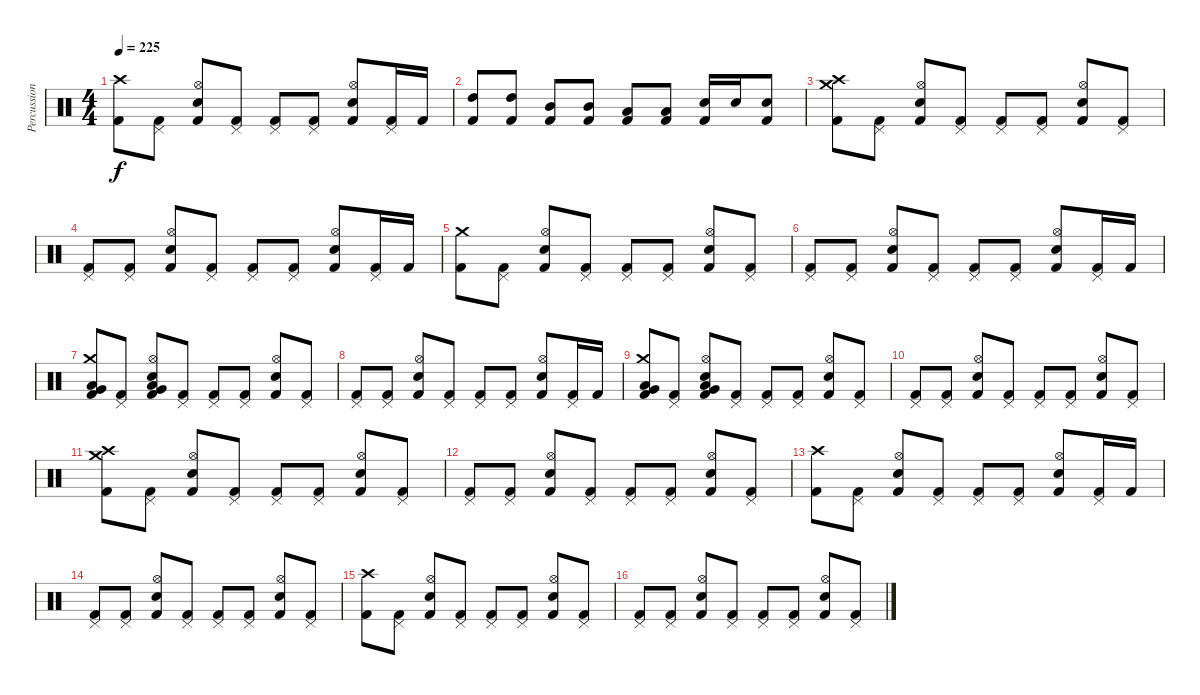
\track ("Percussion" "Percussion") {instrument percussion}
\staff {score}
\articulation defaults
\ts (4 4)
\tempo 225
\clef neutral
\ks c
("Crash high (hit)" "Kick (hit) 2").8{dy f} ("Pedal Hi-Hat (hit)" "Kick (hit) 2").8 ("Hi-Hat (open)" "Electric Snare (hit)" "Kick (hit) 2").8 ("Pedal Hi-Hat (hit)" "Kick (hit) 2").8 ("Pedal Hi-Hat (hit)" "Kick (hit) 2").8 ("Pedal Hi-Hat (hit)" "Kick (hit) 2").8 ("Hi-Hat (open)" "Electric Snare (hit)" "Kick (hit) 2").8 ("Pedal Hi-Hat (hit)" "Kick (hit) 2").16 "Kick (hit) 2".16 |
("High Tom (hit)" "Kick (hit) 2").8 ("High Tom (hit)" "Kick (hit) 2").8 ("Mid Tom (hit)" "Kick (hit) 2").8 ("Mid Tom (hit)" "Kick (hit) 2").8 ("Low Tom (hit)" "Kick (hit) 2").8 ("Low Floor Tom (hit)" "Kick (hit) 2").8 ("Electric Snare (hit)" "Kick (hit) 2").16 "Electric Snare (hit)".16 ("Electric Snare (hit)" "Kick (hit) 2").8 |
("Crash medium (hit)" "Crash high (hit)" "Kick (hit) 2").8 ("Pedal Hi-Hat (hit)" "Kick (hit) 2").8 ("Hi-Hat (open)" "Electric Snare (hit)" "Kick (hit) 2").8 ("Pedal Hi-Hat (hit)" "Kick (hit) 2").8 ("Pedal Hi-Hat (hit)" "Kick (hit) 2").8 ("Pedal Hi-Hat (hit)" "Kick (hit) 2").8 ("Hi-Hat (open)" "Electric Snare (hit)" "Kick (hit) 2").8 ("Pedal Hi-Hat (hit)" "Kick (hit) 2").8 |
("Pedal Hi-Hat (hit)" "Kick (hit) 2").8 ("Pedal Hi-Hat (hit)" "Kick (hit) 2").8 ("Hi-Hat (open)" "Electric Snare (hit)" "Kick (hit) 2").8 ("Pedal Hi-Hat (hit)" "Kick (hit) 2").8 ("Pedal Hi-Hat (hit)" "Kick (hit) 2").8 ("Pedal Hi-Hat (hit)" "Kick (hit) 2").8 ("Hi-Hat (open)" "Electric Snare (hit)" "Kick (hit) 2").8 ("Pedal Hi-Hat (hit)" "Kick (hit) 2").16 "Kick (hit) 2".16 |
("Crash medium (hit)" "Kick (hit) 2").8 ("Pedal Hi-Hat (hit)" "Kick (hit) 2").8 ("Hi-Hat (open)" "Electric Snare (hit)" "Kick (hit) 2").8 ("Pedal Hi-Hat (hit)" "Kick (hit) 2").8 ("Pedal Hi-Hat (hit)" "Kick (hit) 2").8 ("Pedal Hi-Hat (hit)" "Kick (hit) 2").8 ("Hi-Hat (open)" "Electric Snare (hit)" "Kick (hit) 2").8 ("Pedal Hi-Hat (hit)" "Kick (hit) 2").8 |
("Pedal Hi-Hat (hit)" "Kick (hit) 2").8 ("Pedal Hi-Hat (hit)" "Kick (hit) 2").8 ("Hi-Hat (open)" "Electric Snare (hit)" "Kick (hit) 2").8 ("Pedal Hi-Hat (hit)" "Kick (hit) 2").8 ("Pedal Hi-Hat (hit)" "Kick (hit) 2").8 ("Pedal Hi-Hat (hit)" "Kick (hit) 2").8 ("Hi-Hat (open)" "Electric Snare (hit)" "Kick (hit) 2").8 ("Pedal Hi-Hat (hit)" "Kick (hit) 2").16 "Kick (hit) 2".16 |
("Crash medium (hit)" "Very Low Tom (hit)" "Low Floor Tom (hit)" "Kick (hit) 2").8 ("Pedal Hi-Hat (hit)" "Kick (hit) 2").8 ("Hi-Hat (open)" "Electric Snare (hit)" "Very Low Tom (hit)" "Low Floor Tom (hit)" "Kick (hit) 2").8 ("Pedal Hi-Hat (hit)" "Kick (hit) 2").8 ("Pedal Hi-Hat (hit)" "Kick (hit) 2").8 ("Pedal Hi-Hat (hit)" "Kick (hit) 2").8 ("Hi-Hat (open)" "Electric Snare (hit)" "Kick (hit) 2").8 ("Pedal Hi-Hat (hit)" "Kick (hit) 2").8 |
("Pedal Hi-Hat (hit)" "Kick (hit) 2").8 ("Pedal Hi-Hat (hit)" "Kick (hit) 2").8 ("Hi-Hat (open)" "Electric Snare (hit)" "Kick (hit) 2").8 ("Pedal Hi-Hat (hit)" "Kick (hit) 2").8 ("Pedal Hi-Hat (hit)" "Kick (hit) 2").8 ("Pedal Hi-Hat (hit)" "Kick (hit) 2").8 ("Hi-Hat (open)" "Electric Snare (hit)" "Kick (hit) 2").8 ("Pedal Hi-Hat (hit)" "Kick (hit) 2").16 "Kick (hit) 2".16 |
("Crash medium (hit)" "Very Low Tom (hit)" "Low Floor Tom (hit)" "Kick (hit) 2").8 ("Pedal Hi-Hat (hit)" "Kick (hit) 2").8 ("Hi-Hat (open)" "Electric Snare (hit)" "Very Low Tom (hit)" "Low Floor Tom (hit)" "Kick (hit) 2").8 ("Pedal Hi-Hat (hit)" "Kick (hit) 2").8 ("Pedal Hi-Hat (hit)" "Kick (hit) 2").8 ("Pedal Hi-Hat (hit)" "Kick (hit) 2").8 ("Hi-Hat (open)" "Electric Snare (hit)" "Kick (hit) 2").8 ("Pedal Hi-Hat (hit)" "Kick (hit) 2").8 |
("Pedal Hi-Hat (hit)" "Kick (hit) 2").8 ("Pedal Hi-Hat (hit)" "Kick (hit) 2").8 ("Hi-Hat (open)" "Electric Snare (hit)" "Kick (hit) 2").8 ("Pedal Hi-Hat (hit)" "Kick (hit) 2").8 ("Pedal Hi-Hat (hit)" "Kick (hit) 2").8 ("Pedal Hi-Hat (hit)" "Kick (hit) 2").8 ("Hi-Hat (open)" "Electric Snare (hit)" "Kick (hit) 2").8 ("Pedal Hi-Hat (hit)" "Kick (hit) 2").8 |
("Crash high (hit)" "Crash medium (hit)" "Kick (hit) 2").8 ("Pedal Hi-Hat (hit)" "Kick (hit) 2").8 ("Hi-Hat (open)" "Electric Snare (hit)" "Kick (hit) 2").8 ("Pedal Hi-Hat (hit)" "Kick (hit) 2").8 ("Pedal Hi-Hat (hit)" "Kick (hit) 2").8 ("Pedal Hi-Hat (hit)" "Kick (hit) 2").8 ("Hi-Hat (open)" "Electric Snare (hit)" "Kick (hit) 2").8 ("Pedal Hi-Hat (hit)" "Kick (hit) 2").8 |
("Pedal Hi-Hat (hit)" "Kick (hit) 2").8 ("Pedal Hi-Hat (hit)" "Kick (hit) 2").8 ("Hi-Hat (open)" "Electric Snare (hit)" "Kick (hit) 2").8 ("Pedal Hi-Hat (hit)" "Kick (hit) 2").8 ("Pedal Hi-Hat (hit)" "Kick (hit) 2").8 ("Pedal Hi-Hat (hit)" "Kick (hit) 2").8 ("Hi-Hat (open)" "Electric Snare (hit)" "Kick (hit) 2").8 ("Pedal Hi-Hat (hit)" "Kick (hit) 2").8 |
("Crash high (hit)" "Kick (hit) 2").8 ("Pedal Hi-Hat (hit)" "Kick (hit) 2").8 ("Hi-Hat (open)" "Electric Snare (hit)" "Kick (hit) 2").8 ("Pedal Hi-Hat (hit)" "Kick (hit) 2").8 ("Pedal Hi-Hat (hit)" "Kick (hit) 2").8 ("Pedal Hi-Hat (hit)" "Kick (hit) 2").8 ("Hi-Hat (open)" "Electric Snare (hit)" "Kick (hit) 2").8 ("Pedal Hi-Hat (hit)" "Kick (hit) 2").16 "Kick (hit) 2".16 |
("Pedal Hi-Hat (hit)" "Kick (hit) 2").8 ("Pedal Hi-Hat (hit)" "Kick (hit) 2").8 ("Hi-Hat (open)" "Electric Snare (hit)" "Kick (hit) 2").8 ("Pedal Hi-Hat (hit)" "Kick (hit) 2").8 ("Pedal Hi-Hat (hit)" "Kick (hit) 2").8 ("Pedal Hi-Hat (hit)" "Kick (hit) 2").8 ("Hi-Hat (open)" "Electric Snare (hit)" "Kick (hit) 2").8 ("Pedal Hi-Hat (hit)" "Kick (hit) 2").8 |
("Crash high (hit)" "Kick (hit) 2").8 ("Pedal Hi-Hat (hit)" "Kick (hit) 2").8 ("Hi-Hat (open)" "Electric Snare (hit)" "Kick (hit) 2").8 ("Pedal Hi-Hat (hit)" "Kick (hit) 2").8 ("Pedal Hi-Hat (hit)" "Kick (hit) 2").8 ("Pedal Hi-Hat (hit)" "Kick (hit) 2").8 ("Hi-Hat (open)" "Electric Snare (hit)" "Kick (hit) 2").8 ("Pedal Hi-Hat (hit)" "Kick (hit) 2").8 |
("Pedal Hi-Hat (hit)" "Kick (hit) 2").8 ("Pedal Hi-Hat (hit)" "Kick (hit) 2").8 ("Hi-Hat (open)" "Electric Snare (hit)" "Kick (hit) 2").8 ("Pedal Hi-Hat (hit)" "Kick (hit) 2").8 ("Pedal Hi-Hat (hit)" "Kick (hit) 2").8 ("Pedal Hi-Hat (hit)" "Kick (hit) 2").8 ("Hi-Hat (open)" "Electric Snare (hit)" "Kick (hit) 2").8 ("Pedal Hi-Hat (hit)" "Kick (hit) 2").8
